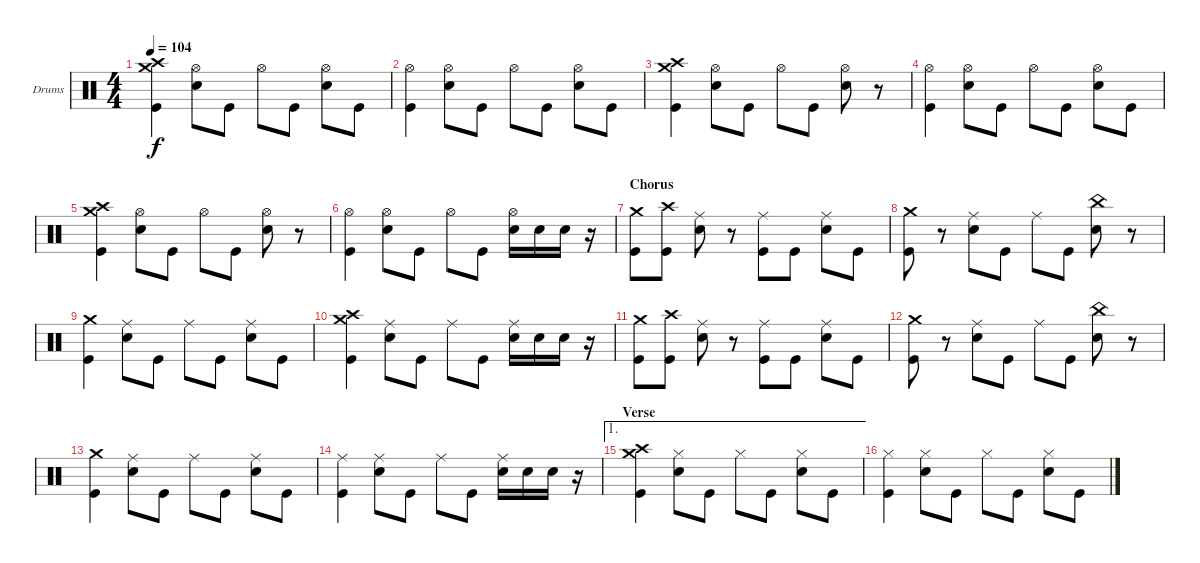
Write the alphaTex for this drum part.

\defaultSystemsLayout 4
\bracketExtendMode nobrackets
\firstSystemTrackNameOrientation horizontal
\otherSystemsTrackNameOrientation horizontal
\track ("Dave Krusen" "Drums") {instrument percussion}
\staff {score}
\articulation defaults
\ts (4 4)
\tempo 104
\clef neutral
\ks c
("Crash high (hit)" "Kick (hit)" "Crash medium (hit)").4{dy f} ("Snare (hit) 2" "Hi-Hat (open)").8 "Kick (hit)".8 "Hi-Hat (open)".8 "Kick (hit)".8 ("Snare (hit) 2" "Hi-Hat (open)").8 "Kick (hit)".8 |
("Kick (hit)" "Hi-Hat (open)").4 ("Snare (hit) 2" "Hi-Hat (open)").8 "Kick (hit)".8 "Hi-Hat (open)".8 "Kick (hit)".8 ("Snare (hit) 2" "Hi-Hat (open)").8 "Kick (hit)".8 |
("Crash high (hit)" "Kick (hit)" "Crash medium (hit)").4 ("Snare (hit) 2" "Hi-Hat (open)").8 "Kick (hit)".8 "Hi-Hat (open)".8 "Kick (hit)".8 ("Snare (hit) 2" "Hi-Hat (open)").8 r.8 |
("Kick (hit)" "Hi-Hat (open)").4 ("Snare (hit) 2" "Hi-Hat (open)").8 "Kick (hit)".8 "Hi-Hat (open)".8 "Kick (hit)".8 ("Snare (hit) 2" "Hi-Hat (open)").8 "Kick (hit)".8 |
("Crash high (hit)" "Kick (hit)" "Crash medium (hit)").4 ("Snare (hit) 2" "Hi-Hat (open)").8 "Kick (hit)".8 "Hi-Hat (open)".8 "Kick (hit)".8 ("Snare (hit) 2" "Hi-Hat (open)").8 r.8 |
("Kick (hit)" "Hi-Hat (open)").4 ("Snare (hit) 2" "Hi-Hat (open)").8 "Kick (hit)".8 "Hi-Hat (open)".8 "Kick (hit)".8 ("Snare (hit) 2" "Hi-Hat (open)").16 "Snare (hit) 2".16 "Snare (hit) 2".16 r.16 |
\section ("" "Chorus")
("Crash medium (hit)" "Kick (hit)").8 ("Crash high (hit)" "Kick (hit)").8 ("Ride (middle)" "Snare (hit) 2").8 r.8 ("Ride (middle)" "Kick (hit)").8 "Kick (hit)".8 ("Ride (middle)" "Snare (hit) 2").8 "Kick (hit)".8 |
("Crash medium (hit)" "Kick (hit)").8 r.8 ("Ride (middle)" "Snare (hit) 2").8 "Kick (hit)".8 "Ride (middle)".8 "Kick (hit)".8 ("China (hit)" "Snare (hit) 2").8 r.8 |
("Kick (hit)" "Crash medium (hit)").4 ("Snare (hit) 2" "Ride (middle)").8 "Kick (hit)".8 "Ride (middle)".8 "Kick (hit)".8 ("Snare (hit) 2" "Ride (middle)").8 "Kick (hit)".8 |
("Crash high (hit)" "Kick (hit)" "Crash medium (hit)").4 ("Snare (hit) 2" "Ride (middle)").8 "Kick (hit)".8 "Ride (middle)".8 "Kick (hit)".8 ("Snare (hit) 2" "Ride (middle)").16 "Snare (hit) 2".16 "Snare (hit) 2".16 r.16 |
("Crash medium (hit)" "Kick (hit)").8 ("Crash high (hit)" "Kick (hit)").8 ("Ride (middle)" "Snare (hit) 2").8 r.8 ("Ride (middle)" "Kick (hit)").8 "Kick (hit)".8 ("Ride (middle)" "Snare (hit) 2").8 "Kick (hit)".8 |
("Crash medium (hit)" "Kick (hit)").8 r.8 ("Ride (middle)" "Snare (hit) 2").8 "Kick (hit)".8 "Ride (middle)".8 "Kick (hit)".8 ("China (hit)" "Snare (hit) 2").8 r.8 |
("Kick (hit)" "Crash medium (hit)").4 ("Snare (hit) 2" "Ride (middle)").8 "Kick (hit)".8 "Ride (middle)".8 "Kick (hit)".8 ("Snare (hit) 2" "Ride (middle)").8 "Kick (hit)".8 |
("Kick (hit)" "Ride (middle)").4 ("Snare (hit) 2" "Ride (middle)").8 "Kick (hit)".8 "Ride (middle)".8 "Kick (hit)".8 ("Snare (hit) 2" "Ride (middle)").16 "Snare (hit) 2".16 "Snare (hit) 2".16 r.16 |
\ae 1
\section ("" "Verse")
("Crash high (hit)" "Kick (hit)" "Crash medium (hit)").4 ("Snare (hit) 2" "Hi-Hat (closed)").8 "Kick (hit)".8 "Hi-Hat (closed)".8 "Kick (hit)".8 ("Snare (hit) 2" "Hi-Hat (closed)").8 "Kick (hit)".8 |
("Kick (hit)" "Hi-Hat (closed)").4 ("Snare (hit) 2" "Hi-Hat (closed)").8 "Kick (hit)".8 "Hi-Hat (closed)".8 "Kick (hit)".8 ("Snare (hit) 2" "Hi-Hat (closed)").8 "Kick (hit)".8
